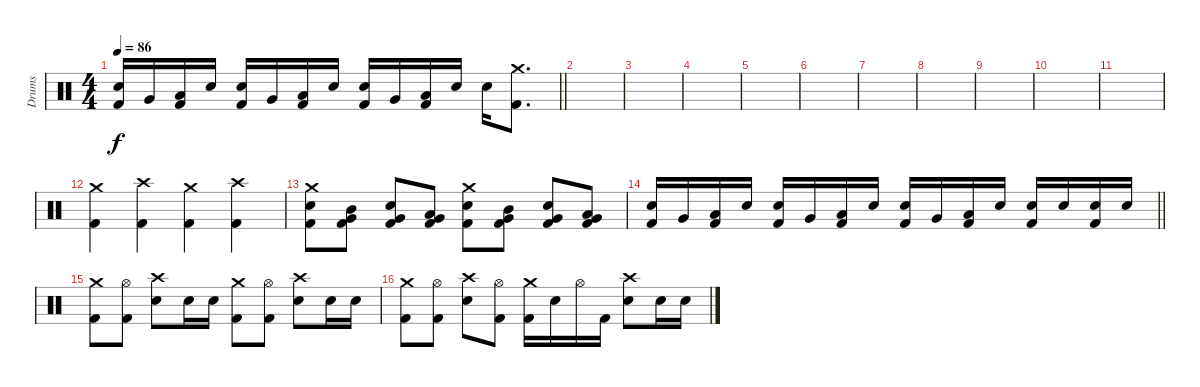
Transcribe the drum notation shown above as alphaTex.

\track ("Drums" "Drums") {instrument percussion}
\staff {score}
\articulation defaults
\ts (4 4)
\tempo 86
\clef neutral
\barLineRight lightlight
\ks c
("Electric Snare (hit)" "Kick (hit) 2").16{dy f} "Very Low Tom (hit)".16 ("Low Tom (hit)" "Kick (hit) 2").16 "Electric Snare (hit)".16 ("Electric Snare (hit)" "Kick (hit) 2").16 "Very Low Tom (hit)".16 ("Low Tom (hit)" "Kick (hit) 2").16 "Electric Snare (hit)".16 ("Electric Snare (hit)" "Kick (hit) 2").16 "Very Low Tom (hit)".16 ("Low Tom (hit)" "Kick (hit) 2").16 "Electric Snare (hit)".16 "Electric Snare (hit)".16 ("Crash medium (hit)" "Kick (hit) 2").8{d} |
|
|
|
|
|
|
|
|
|
|
("Crash medium (hit)" "Kick (hit) 2").4 ("Crash high (hit)" "Kick (hit) 2").4 ("Crash medium (hit)" "Kick (hit) 2").4 ("Crash high (hit)" "Kick (hit) 2").4 |
("Crash medium (hit)" "Electric Snare (hit)" "Kick (hit) 2").8 ("Mid Tom (hit)" "Very Low Tom (hit)" "Kick (hit) 2").8 ("Electric Snare (hit)" "Very Low Tom (hit)" "Kick (hit) 2").8 ("Low Floor Tom (hit)" "Very Low Tom (hit)" "Kick (hit) 2").8 ("Crash medium (hit)" "Electric Snare (hit)" "Kick (hit) 2").8 ("Mid Tom (hit)" "Very Low Tom (hit)" "Kick (hit) 2").8 ("Electric Snare (hit)" "Very Low Tom (hit)" "Kick (hit) 2").8 ("Low Floor Tom (hit)" "Very Low Tom (hit)" "Kick (hit) 2").8 |
\barLineRight lightlight
("Electric Snare (hit)" "Kick (hit) 2").16 "Very Low Tom (hit)".16 ("Low Tom (hit)" "Kick (hit) 2").16 "Electric Snare (hit)".16 ("Electric Snare (hit)" "Kick (hit) 2").16 "Very Low Tom (hit)".16 ("Low Tom (hit)" "Kick (hit) 2").16 "Electric Snare (hit)".16 ("Electric Snare (hit)" "Kick (hit) 2").16 "Very Low Tom (hit)".16 ("Low Tom (hit)" "Kick (hit) 2").16 "Electric Snare (hit)".16 ("Electric Snare (hit)" "Kick (hit) 2").16 "Electric Snare (hit)".16 ("Electric Snare (hit)" "Kick (hit) 2").16 "Electric Snare (hit)".16 |
("Crash medium (hit)" "Kick (hit) 2").8 ("Hi-Hat (open)" "Kick (hit) 2").8 ("Crash high (hit)" "Electric Snare (hit)").8 "Electric Snare (hit)".16 "Electric Snare (hit)".16 ("Crash medium (hit)" "Kick (hit) 2").8 ("Hi-Hat (open)" "Kick (hit) 2").8 ("Crash high (hit)" "Electric Snare (hit)").8 "Electric Snare (hit)".16 "Electric Snare (hit)".16 |
("Crash medium (hit)" "Kick (hit) 2").8 ("Hi-Hat (open)" "Kick (hit) 2").8 ("Crash high (hit)" "Electric Snare (hit)").8 ("Hi-Hat (open)" "Kick (hit) 2").8 ("Crash medium (hit)" "Kick (hit) 2").16 "Electric Snare (hit)".16 "Hi-Hat (open)".16 "Kick (hit) 2".16 ("Crash high (hit)" "Electric Snare (hit)").8 "Electric Snare (hit)".16 "Electric Snare (hit)".16
